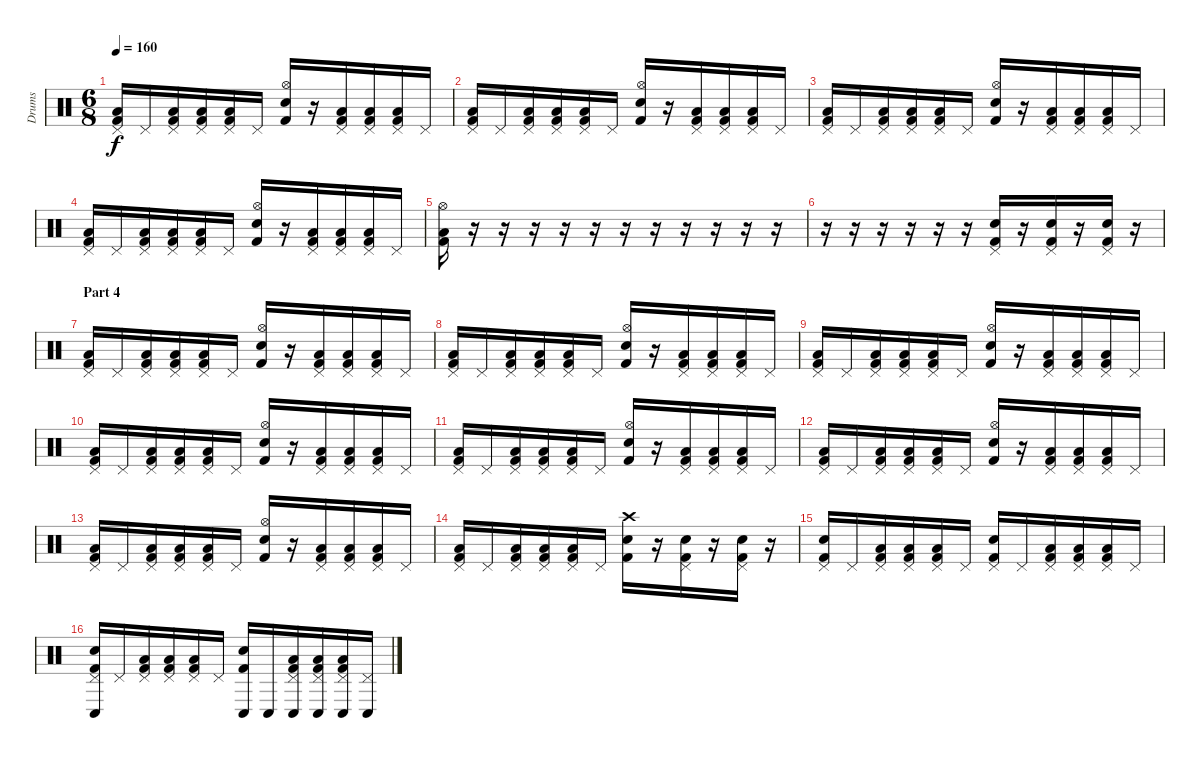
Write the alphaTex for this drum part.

\track ("Drums" "Drums") {instrument percussion}
\staff {score}
\articulation defaults
\ts (6 8)
\tempo 160
\clef neutral
\ks c
("Pedal Hi-Hat (hit)" "Low Floor Tom (hit)" "Kick (hit) 2").16{dy f} "Pedal Hi-Hat (hit)".16 ("Pedal Hi-Hat (hit)" "Low Floor Tom (hit)" "Kick (hit) 2").16 ("Pedal Hi-Hat (hit)" "Low Floor Tom (hit)" "Kick (hit) 2").16 ("Pedal Hi-Hat (hit)" "Low Floor Tom (hit)" "Kick (hit) 2").16 "Pedal Hi-Hat (hit)".16 ("Hi-Hat (open)" "Snare (hit) 2" "Kick (hit) 2").16 r.16 ("Pedal Hi-Hat (hit)" "Low Floor Tom (hit)" "Kick (hit) 2").16 ("Pedal Hi-Hat (hit)" "Low Floor Tom (hit)" "Kick (hit) 2").16 ("Pedal Hi-Hat (hit)" "Low Floor Tom (hit)" "Kick (hit) 2").16 "Pedal Hi-Hat (hit)".16 |
("Pedal Hi-Hat (hit)" "Low Floor Tom (hit)" "Kick (hit) 2").16 "Pedal Hi-Hat (hit)".16 ("Pedal Hi-Hat (hit)" "Low Floor Tom (hit)" "Kick (hit) 2").16 ("Pedal Hi-Hat (hit)" "Low Floor Tom (hit)" "Kick (hit) 2").16 ("Pedal Hi-Hat (hit)" "Low Floor Tom (hit)" "Kick (hit) 2").16 "Pedal Hi-Hat (hit)".16 ("Hi-Hat (open)" "Snare (hit) 2" "Kick (hit) 2").16 r.16 ("Pedal Hi-Hat (hit)" "Low Floor Tom (hit)" "Kick (hit) 2").16 ("Pedal Hi-Hat (hit)" "Low Floor Tom (hit)" "Kick (hit) 2").16 ("Pedal Hi-Hat (hit)" "Low Floor Tom (hit)" "Kick (hit) 2").16 "Pedal Hi-Hat (hit)".16 |
("Pedal Hi-Hat (hit)" "Low Floor Tom (hit)" "Kick (hit) 2").16 "Pedal Hi-Hat (hit)".16 ("Pedal Hi-Hat (hit)" "Low Floor Tom (hit)" "Kick (hit) 2").16 ("Pedal Hi-Hat (hit)" "Low Floor Tom (hit)" "Kick (hit) 2").16 ("Pedal Hi-Hat (hit)" "Low Floor Tom (hit)" "Kick (hit) 2").16 "Pedal Hi-Hat (hit)".16 ("Hi-Hat (open)" "Snare (hit) 2" "Kick (hit) 2").16 r.16 ("Pedal Hi-Hat (hit)" "Low Floor Tom (hit)" "Kick (hit) 2").16 ("Pedal Hi-Hat (hit)" "Low Floor Tom (hit)" "Kick (hit) 2").16 ("Pedal Hi-Hat (hit)" "Low Floor Tom (hit)" "Kick (hit) 2").16 "Pedal Hi-Hat (hit)".16 |
("Pedal Hi-Hat (hit)" "Low Floor Tom (hit)" "Kick (hit) 2").16 "Pedal Hi-Hat (hit)".16 ("Pedal Hi-Hat (hit)" "Low Floor Tom (hit)" "Kick (hit) 2").16 ("Pedal Hi-Hat (hit)" "Low Floor Tom (hit)" "Kick (hit) 2").16 ("Pedal Hi-Hat (hit)" "Low Floor Tom (hit)" "Kick (hit) 2").16 "Pedal Hi-Hat (hit)".16 ("Hi-Hat (open)" "Snare (hit) 2" "Kick (hit) 2").16 r.16 ("Pedal Hi-Hat (hit)" "Low Floor Tom (hit)" "Kick (hit) 2").16 ("Pedal Hi-Hat (hit)" "Low Floor Tom (hit)" "Kick (hit) 2").16 ("Pedal Hi-Hat (hit)" "Low Floor Tom (hit)" "Kick (hit) 2").16 "Pedal Hi-Hat (hit)".16 |
("Hi-Hat (open)" "Low Floor Tom (hit)" "Kick (hit) 2").16 r.16 r.16 r.16 r.16 r.16 r.16 r.16 r.16 r.16 r.16 r.16 |
r.16 r.16 r.16 r.16 r.16 r.16 ("Electric Snare (hit)" "Pedal Hi-Hat (hit)" "Kick (hit) 2").16 r.16 ("Electric Snare (hit)" "Pedal Hi-Hat (hit)" "Kick (hit) 2").16 r.16 ("Electric Snare (hit)" "Pedal Hi-Hat (hit)" "Kick (hit) 2").16 r.16 |
\section ("" "Part 4")
("Pedal Hi-Hat (hit)" "Low Floor Tom (hit)" "Kick (hit) 2").16 "Pedal Hi-Hat (hit)".16 ("Pedal Hi-Hat (hit)" "Low Floor Tom (hit)" "Kick (hit) 2").16 ("Pedal Hi-Hat (hit)" "Low Floor Tom (hit)" "Kick (hit) 2").16 ("Pedal Hi-Hat (hit)" "Low Floor Tom (hit)" "Kick (hit) 2").16 "Pedal Hi-Hat (hit)".16 ("Hi-Hat (open)" "Snare (hit) 2" "Kick (hit) 2").16 r.16 ("Pedal Hi-Hat (hit)" "Low Floor Tom (hit)" "Kick (hit) 2").16 ("Pedal Hi-Hat (hit)" "Low Floor Tom (hit)" "Kick (hit) 2").16 ("Pedal Hi-Hat (hit)" "Low Floor Tom (hit)" "Kick (hit) 2").16 "Pedal Hi-Hat (hit)".16 |
("Pedal Hi-Hat (hit)" "Low Floor Tom (hit)" "Kick (hit) 2").16 "Pedal Hi-Hat (hit)".16 ("Pedal Hi-Hat (hit)" "Low Floor Tom (hit)" "Kick (hit) 2").16 ("Pedal Hi-Hat (hit)" "Low Floor Tom (hit)" "Kick (hit) 2").16 ("Pedal Hi-Hat (hit)" "Low Floor Tom (hit)" "Kick (hit) 2").16 "Pedal Hi-Hat (hit)".16 ("Hi-Hat (open)" "Snare (hit) 2" "Kick (hit) 2").16 r.16 ("Pedal Hi-Hat (hit)" "Low Floor Tom (hit)" "Kick (hit) 2").16 ("Pedal Hi-Hat (hit)" "Low Floor Tom (hit)" "Kick (hit) 2").16 ("Pedal Hi-Hat (hit)" "Low Floor Tom (hit)" "Kick (hit) 2").16 "Pedal Hi-Hat (hit)".16 |
("Pedal Hi-Hat (hit)" "Low Floor Tom (hit)" "Kick (hit) 2").16 "Pedal Hi-Hat (hit)".16 ("Pedal Hi-Hat (hit)" "Low Floor Tom (hit)" "Kick (hit) 2").16 ("Pedal Hi-Hat (hit)" "Low Floor Tom (hit)" "Kick (hit) 2").16 ("Pedal Hi-Hat (hit)" "Low Floor Tom (hit)" "Kick (hit) 2").16 "Pedal Hi-Hat (hit)".16 ("Hi-Hat (open)" "Snare (hit) 2" "Kick (hit) 2").16 r.16 ("Pedal Hi-Hat (hit)" "Low Floor Tom (hit)" "Kick (hit) 2").16 ("Pedal Hi-Hat (hit)" "Low Floor Tom (hit)" "Kick (hit) 2").16 ("Pedal Hi-Hat (hit)" "Low Floor Tom (hit)" "Kick (hit) 2").16 "Pedal Hi-Hat (hit)".16 |
("Pedal Hi-Hat (hit)" "Low Floor Tom (hit)" "Kick (hit) 2").16 "Pedal Hi-Hat (hit)".16 ("Pedal Hi-Hat (hit)" "Low Floor Tom (hit)" "Kick (hit) 2").16 ("Pedal Hi-Hat (hit)" "Low Floor Tom (hit)" "Kick (hit) 2").16 ("Pedal Hi-Hat (hit)" "Low Floor Tom (hit)" "Kick (hit) 2").16 "Pedal Hi-Hat (hit)".16 ("Hi-Hat (open)" "Snare (hit) 2" "Kick (hit) 2").16 r.16 ("Pedal Hi-Hat (hit)" "Low Floor Tom (hit)" "Kick (hit) 2").16 ("Pedal Hi-Hat (hit)" "Low Floor Tom (hit)" "Kick (hit) 2").16 ("Pedal Hi-Hat (hit)" "Low Floor Tom (hit)" "Kick (hit) 2").16 "Pedal Hi-Hat (hit)".16 |
("Pedal Hi-Hat (hit)" "Low Floor Tom (hit)" "Kick (hit) 2").16 "Pedal Hi-Hat (hit)".16 ("Pedal Hi-Hat (hit)" "Low Floor Tom (hit)" "Kick (hit) 2").16 ("Pedal Hi-Hat (hit)" "Low Floor Tom (hit)" "Kick (hit) 2").16 ("Pedal Hi-Hat (hit)" "Low Floor Tom (hit)" "Kick (hit) 2").16 "Pedal Hi-Hat (hit)".16 ("Hi-Hat (open)" "Snare (hit) 2" "Kick (hit) 2").16 r.16 ("Pedal Hi-Hat (hit)" "Low Floor Tom (hit)" "Kick (hit) 2").16 ("Pedal Hi-Hat (hit)" "Low Floor Tom (hit)" "Kick (hit) 2").16 ("Pedal Hi-Hat (hit)" "Low Floor Tom (hit)" "Kick (hit) 2").16 "Pedal Hi-Hat (hit)".16 |
("Pedal Hi-Hat (hit)" "Low Floor Tom (hit)" "Kick (hit) 2").16 "Pedal Hi-Hat (hit)".16 ("Pedal Hi-Hat (hit)" "Low Floor Tom (hit)" "Kick (hit) 2").16 ("Pedal Hi-Hat (hit)" "Low Floor Tom (hit)" "Kick (hit) 2").16 ("Pedal Hi-Hat (hit)" "Low Floor Tom (hit)" "Kick (hit) 2").16 "Pedal Hi-Hat (hit)".16 ("Hi-Hat (open)" "Snare (hit) 2" "Kick (hit) 2").16 r.16 ("Pedal Hi-Hat (hit)" "Low Floor Tom (hit)" "Kick (hit) 2").16 ("Pedal Hi-Hat (hit)" "Low Floor Tom (hit)" "Kick (hit) 2").16 ("Pedal Hi-Hat (hit)" "Low Floor Tom (hit)" "Kick (hit) 2").16 "Pedal Hi-Hat (hit)".16 |
("Pedal Hi-Hat (hit)" "Low Floor Tom (hit)" "Kick (hit) 2").16 "Pedal Hi-Hat (hit)".16 ("Pedal Hi-Hat (hit)" "Low Floor Tom (hit)" "Kick (hit) 2").16 ("Pedal Hi-Hat (hit)" "Low Floor Tom (hit)" "Kick (hit) 2").16 ("Pedal Hi-Hat (hit)" "Low Floor Tom (hit)" "Kick (hit) 2").16 "Pedal Hi-Hat (hit)".16 ("Hi-Hat (open)" "Snare (hit) 2" "Kick (hit) 2").16 r.16 ("Pedal Hi-Hat (hit)" "Low Floor Tom (hit)" "Kick (hit) 2").16 ("Pedal Hi-Hat (hit)" "Low Floor Tom (hit)" "Kick (hit) 2").16 ("Pedal Hi-Hat (hit)" "Low Floor Tom (hit)" "Kick (hit) 2").16 "Pedal Hi-Hat (hit)".16 |
("Pedal Hi-Hat (hit)" "Low Floor Tom (hit)" "Kick (hit) 2").16 "Pedal Hi-Hat (hit)".16 ("Pedal Hi-Hat (hit)" "Low Floor Tom (hit)" "Kick (hit) 2").16 ("Pedal Hi-Hat (hit)" "Low Floor Tom (hit)" "Kick (hit) 2").16 ("Pedal Hi-Hat (hit)" "Low Floor Tom (hit)" "Kick (hit) 2").16 "Pedal Hi-Hat (hit)".16 ("Crash high (hit)" "Snare (hit) 2" "Kick (hit) 2").16 r.16 ("Pedal Hi-Hat (hit)" "Electric Snare (hit)" "Kick (hit) 2").16 r.16 ("Pedal Hi-Hat (hit)" "Electric Snare (hit)" "Kick (hit) 2").16 r.16 |
("Pedal Hi-Hat (hit)" "Snare (hit) 2" "Kick (hit) 2").16 "Pedal Hi-Hat (hit)".16 ("Pedal Hi-Hat (hit)" "Low Floor Tom (hit)" "Kick (hit) 2").16 ("Pedal Hi-Hat (hit)" "Low Floor Tom (hit)" "Kick (hit) 2").16 ("Pedal Hi-Hat (hit)" "Low Floor Tom (hit)" "Kick (hit) 2").16 "Pedal Hi-Hat (hit)".16 ("Pedal Hi-Hat (hit)" "Snare (hit) 2" "Kick (hit) 2").16 "Pedal Hi-Hat (hit)".16 ("Pedal Hi-Hat (hit)" "Low Floor Tom (hit)" "Kick (hit) 2").16 ("Pedal Hi-Hat (hit)" "Low Floor Tom (hit)" "Kick (hit) 2").16 ("Pedal Hi-Hat (hit)" "Low Floor Tom (hit)" "Kick (hit) 2").16 "Pedal Hi-Hat (hit)".16 |
("Conga low (hit)" "Pedal Hi-Hat (hit)" "Snare (hit) 2" "Kick (hit) 2").16 "Pedal Hi-Hat (hit)".16 ("Pedal Hi-Hat (hit)" "Low Floor Tom (hit)" "Kick (hit) 2").16 ("Pedal Hi-Hat (hit)" "Low Floor Tom (hit)" "Kick (hit) 2").16 ("Pedal Hi-Hat (hit)" "Low Floor Tom (hit)" "Kick (hit) 2").16 "Pedal Hi-Hat (hit)".16 ("Conga low (hit)" "Snare (hit) 2" "Kick (hit) 2").16 "Conga low (hit)".16 ("Conga low (hit)" "Pedal Hi-Hat (hit)" "Low Floor Tom (hit)" "Kick (hit) 2").16 ("Conga low (hit)" "Pedal Hi-Hat (hit)" "Low Floor Tom (hit)" "Kick (hit) 2").16 ("Conga low (hit)" "Pedal Hi-Hat (hit)" "Low Floor Tom (hit)" "Kick (hit) 2").16 ("Conga low (hit)" "Pedal Hi-Hat (hit)").16
